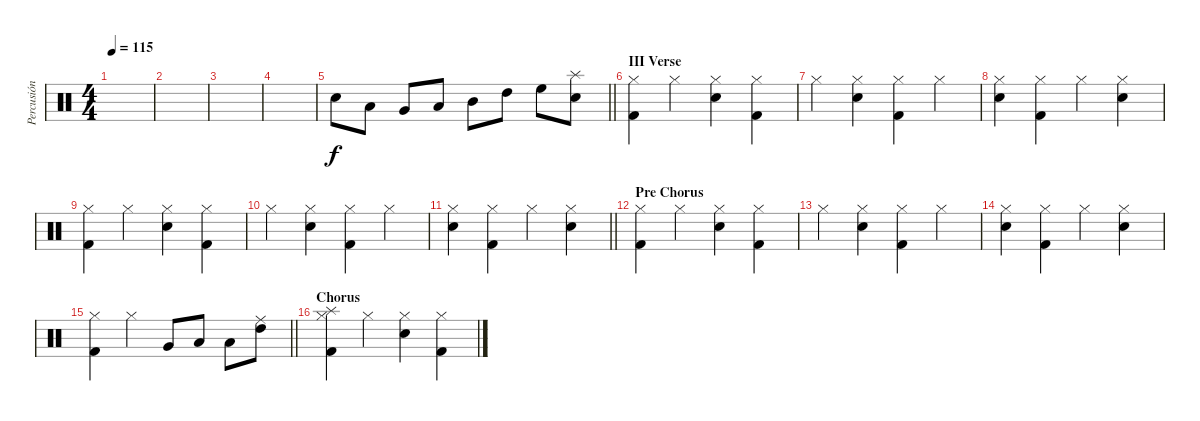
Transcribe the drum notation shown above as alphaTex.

\track ("Percusión" "Percusión") {instrument percussion}
\staff {score}
\articulation defaults
\ts (4 4)
\tempo 115
\clef neutral
\ks c
|
|
|
|
\barLineRight lightlight "Snare (hit) 2".8 "Low Floor Tom (hit)".8 "Very Low Tom (hit)".8 "Low Tom (hit)".8 "Mid Tom (hit)".8 "High Tom (hit)".8 "High Floor Tom (hit)".8
("Splash (hit)" "Electric Snare (hit)").8 |
\section ("" "III Verse")
("Hi-Hat (closed)" "Kick (hit) 2").4 "Hi-Hat (closed)".4 ("Snare (hit) 2" "Hi-Hat (closed)").4 ("Hi-Hat (closed)" "Kick (hit) 2").4 |
"Hi-Hat (closed)".4 ("Snare (hit) 2" "Hi-Hat (closed)").4 ("Hi-Hat (closed)" "Kick (hit) 2").4 "Hi-Hat (closed)".4 |
("Snare (hit) 2" "Hi-Hat (closed)").4 ("Hi-Hat (closed)" "Kick (hit) 2").4 "Hi-Hat (closed)".4 ("Snare (hit) 2" "Hi-Hat (closed)").4 |
("Hi-Hat (closed)" "Kick (hit) 2").4 "Hi-Hat (closed)".4 ("Snare (hit) 2" "Hi-Hat (closed)").4 ("Hi-Hat (closed)" "Kick (hit) 2").4 |
"Hi-Hat (closed)".4 ("Snare (hit) 2" "Hi-Hat (closed)").4 ("Hi-Hat (closed)" "Kick (hit) 2").4 "Hi-Hat (closed)".4 |
\barLineRight lightlight
("Snare (hit) 2" "Hi-Hat (closed)").4 ("Hi-Hat (closed)" "Kick (hit) 2").4 "Hi-Hat (closed)".4 ("Snare (hit) 2" "Hi-Hat (closed)").4 |
\section ("" "Pre Chorus")
("Hi-Hat (closed)" "Kick (hit) 2").4 "Hi-Hat (closed)".4 ("Snare (hit) 2" "Hi-Hat (closed)").4 ("Hi-Hat (closed)" "Kick (hit) 2").4 |
"Hi-Hat (closed)".4 ("Snare (hit) 2" "Hi-Hat (closed)").4 ("Hi-Hat (closed)" "Kick (hit) 2").4 "Hi-Hat (closed)".4 |
("Snare (hit) 2" "Hi-Hat (closed)").4 ("Hi-Hat (closed)" "Kick (hit) 2").4 "Hi-Hat (closed)".4 ("Snare (hit) 2" "Hi-Hat (closed)").4 |
\barLineRight lightlight
("Hi-Hat (closed)" "Kick (hit) 2").4 "Hi-Hat (closed)".4 "Very Low Tom (hit)".8 "Low Floor Tom (hit)".8 "Low Tom (hit)".8 ("High Tom (hit)" "Ride (middle)").8 |
\section ("" "Chorus")
("Splash (hit)" "Hi-Hat (closed)" "Kick (hit) 2").4 "Hi-Hat (closed)".4 ("Snare (hit) 2" "Hi-Hat (closed)").4 ("Hi-Hat (closed)" "Kick (hit) 2").4
